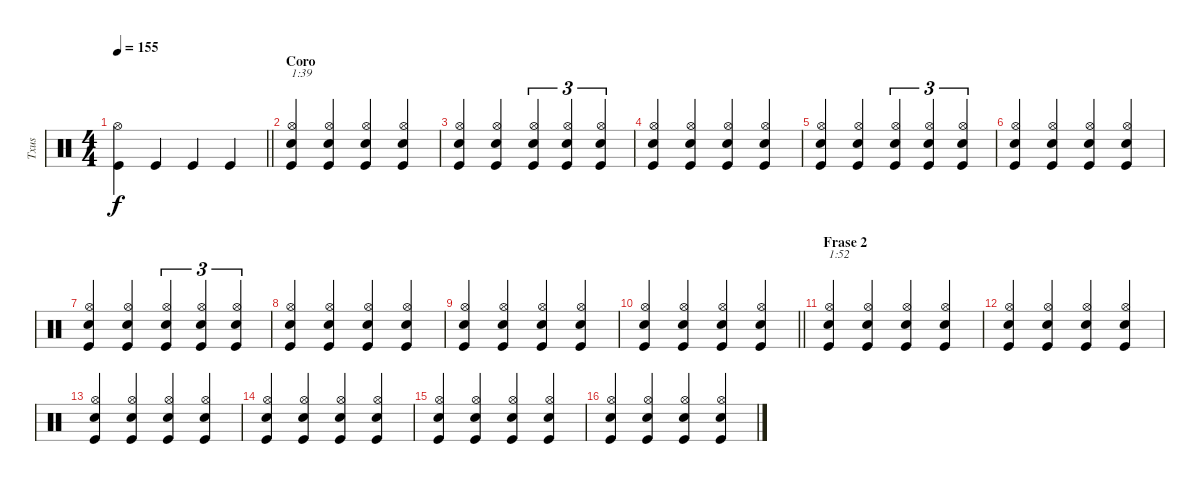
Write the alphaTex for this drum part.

\track ("Txus" "Txus") {instrument percussion}
\staff {score}
\articulation defaults
\ts (4 4)
\tempo 155
\clef neutral
\barLineRight lightlight
\ks c
("Kick (hit)" "Hi-Hat (open)").4{dy f} "Kick (hit)".4 "Kick (hit)".4 "Kick (hit)".4 |
\section ("" "Coro")
("Kick (hit)" "Snare (hit) 2" "Hi-Hat (open)").4{txt "1:39"} ("Kick (hit)" "Snare (hit) 2" "Hi-Hat (open)").4 ("Kick (hit)" "Snare (hit) 2" "Hi-Hat (open)").4 ("Kick (hit)" "Snare (hit) 2" "Hi-Hat (open)").4 |
("Kick (hit)" "Snare (hit) 2" "Hi-Hat (open)").4 ("Kick (hit)" "Snare (hit) 2" "Hi-Hat (open)").4 ("Kick (hit)" "Snare (hit) 2" "Hi-Hat (open)").4{tu (3 2)} ("Kick (hit)" "Snare (hit) 2" "Hi-Hat (open)").4{tu (3 2)} ("Kick (hit)" "Snare (hit) 2" "Hi-Hat (open)").4{tu (3 2)} |
("Kick (hit)" "Snare (hit) 2" "Hi-Hat (open)").4 ("Kick (hit)" "Snare (hit) 2" "Hi-Hat (open)").4 ("Kick (hit)" "Snare (hit) 2" "Hi-Hat (open)").4 ("Kick (hit)" "Snare (hit) 2" "Hi-Hat (open)").4 |
("Kick (hit)" "Snare (hit) 2" "Hi-Hat (open)").4 ("Kick (hit)" "Snare (hit) 2" "Hi-Hat (open)").4 ("Kick (hit)" "Snare (hit) 2" "Hi-Hat (open)").4{tu (3 2)} ("Kick (hit)" "Snare (hit) 2" "Hi-Hat (open)").4{tu (3 2)} ("Kick (hit)" "Snare (hit) 2" "Hi-Hat (open)").4{tu (3 2)} |
("Kick (hit)" "Snare (hit) 2" "Hi-Hat (open)").4 ("Kick (hit)" "Snare (hit) 2" "Hi-Hat (open)").4 ("Kick (hit)" "Snare (hit) 2" "Hi-Hat (open)").4 ("Kick (hit)" "Snare (hit) 2" "Hi-Hat (open)").4 |
("Kick (hit)" "Snare (hit) 2" "Hi-Hat (open)").4 ("Kick (hit)" "Snare (hit) 2" "Hi-Hat (open)").4 ("Kick (hit)" "Snare (hit) 2" "Hi-Hat (open)").4{tu (3 2)} ("Kick (hit)" "Snare (hit) 2" "Hi-Hat (open)").4{tu (3 2)} ("Kick (hit)" "Snare (hit) 2" "Hi-Hat (open)").4{tu (3 2)} |
("Kick (hit)" "Snare (hit) 2" "Hi-Hat (open)").4 ("Kick (hit)" "Snare (hit) 2" "Hi-Hat (open)").4 ("Kick (hit)" "Snare (hit) 2" "Hi-Hat (open)").4 ("Kick (hit)" "Snare (hit) 2" "Hi-Hat (open)").4 |
("Kick (hit)" "Snare (hit) 2" "Hi-Hat (open)").4 ("Kick (hit)" "Snare (hit) 2" "Hi-Hat (open)").4 ("Kick (hit)" "Snare (hit) 2" "Hi-Hat (open)").4 ("Kick (hit)" "Snare (hit) 2" "Hi-Hat (open)").4 |
\barLineRight lightlight
("Kick (hit)" "Snare (hit) 2" "Hi-Hat (open)").4 ("Kick (hit)" "Snare (hit) 2" "Hi-Hat (open)").4 ("Kick (hit)" "Snare (hit) 2" "Hi-Hat (open)").4 ("Kick (hit)" "Snare (hit) 2" "Hi-Hat (open)").4 |
\section ("" "Frase 2")
("Kick (hit)" "Snare (hit) 2" "Hi-Hat (open)").4{txt "1:52"} ("Kick (hit)" "Snare (hit) 2" "Hi-Hat (open)").4 ("Kick (hit)" "Snare (hit) 2" "Hi-Hat (open)").4 ("Kick (hit)" "Snare (hit) 2" "Hi-Hat (open)").4 |
("Kick (hit)" "Snare (hit) 2" "Hi-Hat (open)").4 ("Kick (hit)" "Snare (hit) 2" "Hi-Hat (open)").4 ("Kick (hit)" "Snare (hit) 2" "Hi-Hat (open)").4 ("Kick (hit)" "Snare (hit) 2" "Hi-Hat (open)").4 |
("Kick (hit)" "Snare (hit) 2" "Hi-Hat (open)").4 ("Kick (hit)" "Snare (hit) 2" "Hi-Hat (open)").4 ("Kick (hit)" "Snare (hit) 2" "Hi-Hat (open)").4 ("Kick (hit)" "Snare (hit) 2" "Hi-Hat (open)").4 |
("Kick (hit)" "Snare (hit) 2" "Hi-Hat (open)").4 ("Kick (hit)" "Snare (hit) 2" "Hi-Hat (open)").4 ("Kick (hit)" "Snare (hit) 2" "Hi-Hat (open)").4 ("Kick (hit)" "Snare (hit) 2" "Hi-Hat (open)").4 |
("Kick (hit)" "Snare (hit) 2" "Hi-Hat (open)").4 ("Kick (hit)" "Snare (hit) 2" "Hi-Hat (open)").4 ("Kick (hit)" "Snare (hit) 2" "Hi-Hat (open)").4 ("Kick (hit)" "Snare (hit) 2" "Hi-Hat (open)").4 |
("Kick (hit)" "Snare (hit) 2" "Hi-Hat (open)").4 ("Kick (hit)" "Snare (hit) 2" "Hi-Hat (open)").4 ("Kick (hit)" "Snare (hit) 2" "Hi-Hat (open)").4 ("Kick (hit)" "Snare (hit) 2" "Hi-Hat (open)").4
